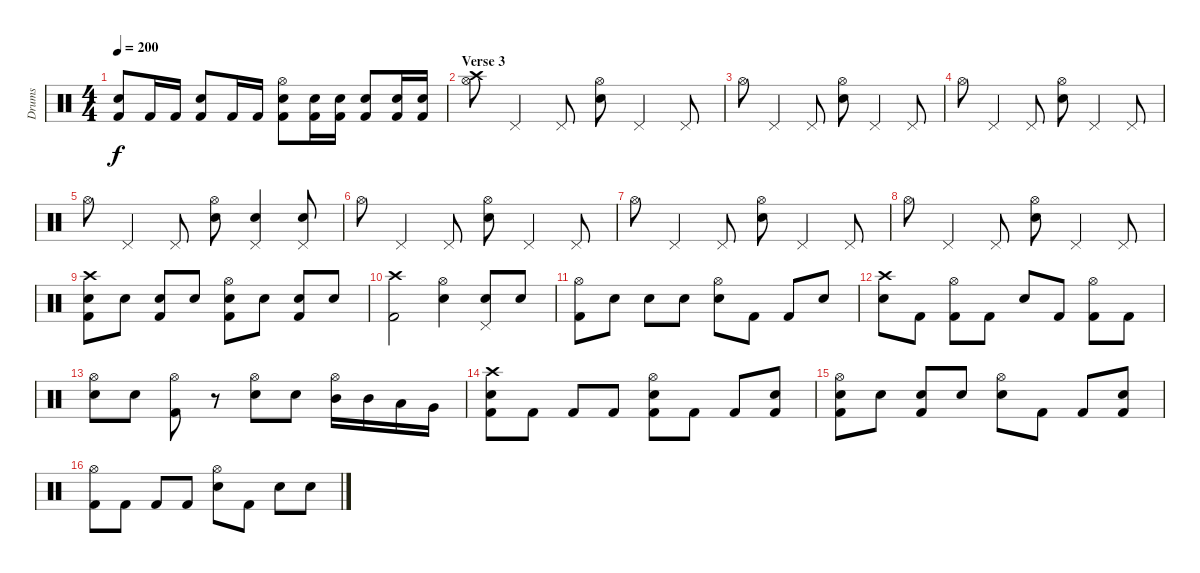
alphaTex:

\track ("Drums" "Drums") {instrument percussion}
\staff {score}
\articulation defaults
\ts (4 4)
\tempo 200
\clef neutral
\ks c
("Electric Snare (hit)" "Kick (hit) 2").8{dy f} "Kick (hit) 2".16 "Kick (hit) 2".16 ("Electric Snare (hit)" "Kick (hit) 2").8 "Kick (hit) 2".16 "Kick (hit) 2".16 ("Hi-Hat (open)" "Electric Snare (hit)" "Kick (hit) 2").8 ("Electric Snare (hit)" "Kick (hit) 2").16 ("Electric Snare (hit)" "Kick (hit) 2").16 ("Electric Snare (hit)" "Kick (hit) 2").8 ("Electric Snare (hit)" "Kick (hit) 2").16 ("Electric Snare (hit)" "Kick (hit) 2").16 |
\section ("" "Verse 3")
("Crash high (hit)" "Hi-Hat (open)").8 "Pedal Hi-Hat (hit)".4 "Pedal Hi-Hat (hit)".8 ("Hi-Hat (open)" "Electric Snare (hit)").8 "Pedal Hi-Hat (hit)".4 "Pedal Hi-Hat (hit)".8 |
"Hi-Hat (open)".8 "Pedal Hi-Hat (hit)".4 "Pedal Hi-Hat (hit)".8 ("Hi-Hat (open)" "Electric Snare (hit)").8 "Pedal Hi-Hat (hit)".4 "Pedal Hi-Hat (hit)".8 |
"Hi-Hat (open)".8 "Pedal Hi-Hat (hit)".4 "Pedal Hi-Hat (hit)".8 ("Hi-Hat (open)" "Electric Snare (hit)").8 "Pedal Hi-Hat (hit)".4 "Pedal Hi-Hat (hit)".8 |
"Hi-Hat (open)".8 "Pedal Hi-Hat (hit)".4 "Pedal Hi-Hat (hit)".8 ("Hi-Hat (open)" "Electric Snare (hit)").8 ("Pedal Hi-Hat (hit)" "Electric Snare (hit)").4 ("Pedal Hi-Hat (hit)" "Electric Snare (hit)").8 |
"Hi-Hat (open)".8 "Pedal Hi-Hat (hit)".4 "Pedal Hi-Hat (hit)".8 ("Hi-Hat (open)" "Electric Snare (hit)").8 "Pedal Hi-Hat (hit)".4 "Pedal Hi-Hat (hit)".8 |
"Hi-Hat (open)".8 "Pedal Hi-Hat (hit)".4 "Pedal Hi-Hat (hit)".8 ("Hi-Hat (open)" "Electric Snare (hit)").8 "Pedal Hi-Hat (hit)".4 "Pedal Hi-Hat (hit)".8 |
"Hi-Hat (open)".8 "Pedal Hi-Hat (hit)".4 "Pedal Hi-Hat (hit)".8 ("Hi-Hat (open)" "Electric Snare (hit)").8 "Pedal Hi-Hat (hit)".4 "Pedal Hi-Hat (hit)".8 |
("Crash high (hit)" "Electric Snare (hit)" "Kick (hit) 2").8 "Electric Snare (hit)".8 ("Electric Snare (hit)" "Kick (hit) 2").8 "Electric Snare (hit)".8 ("Hi-Hat (open)" "Electric Snare (hit)" "Kick (hit) 2").8 "Electric Snare (hit)".8 ("Electric Snare (hit)" "Kick (hit) 2").8 "Electric Snare (hit)".8 |
("Crash high (hit)" "Kick (hit) 2").2 ("Hi-Hat (open)" "Electric Snare (hit)").4 ("Pedal Hi-Hat (hit)" "Electric Snare (hit)").8 "Electric Snare (hit)".8 |
("Hi-Hat (open)" "Kick (hit) 2").8 "Electric Snare (hit)".8 "Electric Snare (hit)".8 "Electric Snare (hit)".8 ("Hi-Hat (open)" "Electric Snare (hit)").8 "Kick (hit) 2".8 "Kick (hit) 2".8 "Electric Snare (hit)".8 |
("Crash high (hit)" "Electric Snare (hit)").8 "Kick (hit) 2".8 ("Hi-Hat (open)" "Kick (hit) 2").8 "Kick (hit) 2".8 "Electric Snare (hit)".8 "Kick (hit) 2".8 ("Hi-Hat (open)" "Kick (hit) 2").8 "Kick (hit) 2".8 |
("Hi-Hat (open)" "Electric Snare (hit)").8 "Electric Snare (hit)".8 ("Hi-Hat (open)" "Kick (hit) 2").8 r.8 ("Hi-Hat (open)" "Electric Snare (hit)").8 "Electric Snare (hit)".8 ("Hi-Hat (open)" "Mid Tom (hit)").16 "Mid Tom (hit)".16 "Low Tom (hit)".16 "Very Low Tom (hit)".16 |
("Crash high (hit)" "Electric Snare (hit)" "Kick (hit) 2").8 "Kick (hit) 2".8 "Kick (hit) 2".8 "Kick (hit) 2".8 ("Hi-Hat (open)" "Electric Snare (hit)" "Kick (hit) 2").8 "Kick (hit) 2".8 "Kick (hit) 2".8 ("Electric Snare (hit)" "Kick (hit) 2").8 |
("Hi-Hat (open)" "Electric Snare (hit)" "Kick (hit) 2").8 "Electric Snare (hit)".8 ("Electric Snare (hit)" "Kick (hit) 2").8 "Electric Snare (hit)".8 ("Hi-Hat (open)" "Electric Snare (hit)").8 "Kick (hit) 2".8 "Kick (hit) 2".8 ("Electric Snare (hit)" "Kick (hit) 2").8 |
("Hi-Hat (open)" "Kick (hit) 2").8 "Kick (hit) 2".8 "Kick (hit) 2".8 "Kick (hit) 2".8 ("Hi-Hat (open)" "Electric Snare (hit)").8 "Kick (hit) 2".8 "Electric Snare (hit)".8 "Electric Snare (hit)".8
